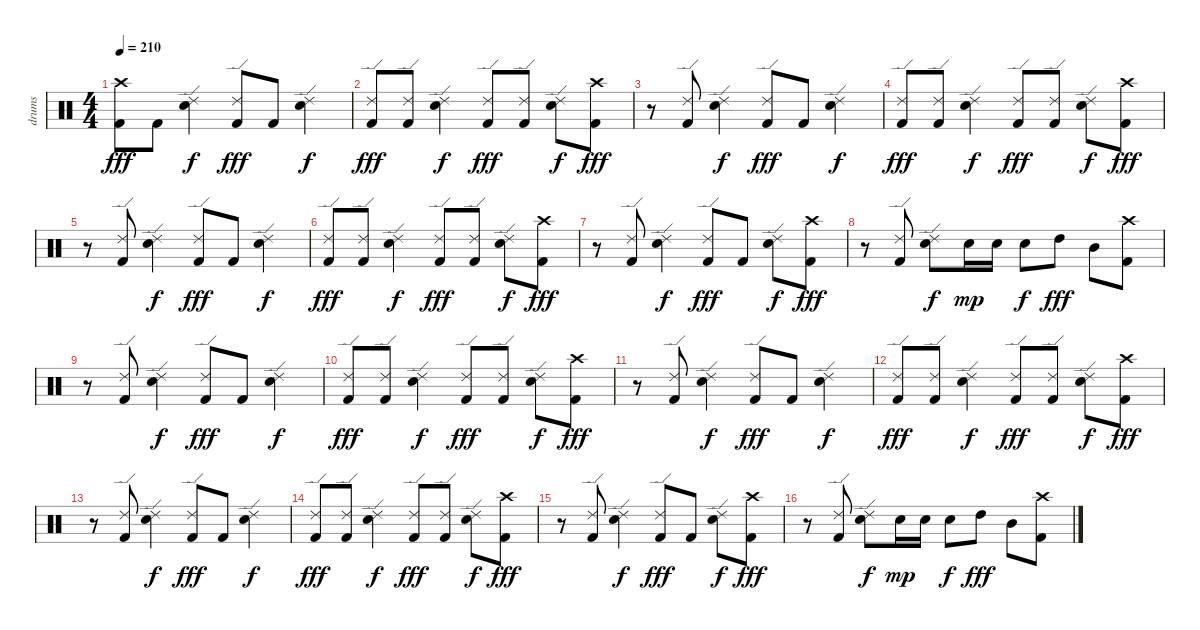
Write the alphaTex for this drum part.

\track ("drums" "drums") {instrument percussion}
\staff {score}
\articulation defaults
\ts (4 4)
\tempo 210
\clef neutral
\ks c
("Crash high (hit)" "Kick (hit) 2").8{dy fff} "Kick (hit) 2".8 ("Ride (edge) 2" "Snare (hit) 2").4{dy f} ("Ride (edge) 2" "Kick (hit) 2").8{dy fff} "Kick (hit) 2".8 ("Ride (edge) 2" "Snare (hit) 2").4{dy f} |
("Ride (edge) 2" "Kick (hit) 2").8{dy fff} ("Ride (edge) 2" "Kick (hit) 2").8 ("Ride (edge) 2" "Snare (hit) 2").4{dy f} ("Ride (edge) 2" "Kick (hit) 2").8{dy fff} ("Ride (edge) 2" "Kick (hit) 2").8 ("Ride (edge) 2" "Snare (hit) 2").8{dy f} ("Crash high (hit)" "Kick (hit) 2").8{dy fff} |
r.8 ("Ride (edge) 2" "Kick (hit) 2").8 ("Ride (edge) 2" "Snare (hit) 2").4{dy f} ("Ride (edge) 2" "Kick (hit) 2").8{dy fff} "Kick (hit) 2".8 ("Ride (edge) 2" "Snare (hit) 2").4{dy f} |
("Ride (edge) 2" "Kick (hit) 2").8{dy fff} ("Ride (edge) 2" "Kick (hit) 2").8 ("Ride (edge) 2" "Snare (hit) 2").4{dy f} ("Ride (edge) 2" "Kick (hit) 2").8{dy fff} ("Ride (edge) 2" "Kick (hit) 2").8 ("Ride (edge) 2" "Snare (hit) 2").8{dy f} ("Crash high (hit)" "Kick (hit) 2").8{dy fff} |
r.8 ("Ride (edge) 2" "Kick (hit) 2").8 ("Ride (edge) 2" "Snare (hit) 2").4{dy f} ("Ride (edge) 2" "Kick (hit) 2").8{dy fff} "Kick (hit) 2".8 ("Ride (edge) 2" "Snare (hit) 2").4{dy f} |
("Ride (edge) 2" "Kick (hit) 2").8{dy fff} ("Ride (edge) 2" "Kick (hit) 2").8 ("Ride (edge) 2" "Snare (hit) 2").4{dy f} ("Ride (edge) 2" "Kick (hit) 2").8{dy fff} ("Ride (edge) 2" "Kick (hit) 2").8 ("Ride (edge) 2" "Snare (hit) 2").8{dy f} ("Crash high (hit)" "Kick (hit) 2").8{dy fff} |
r.8 ("Ride (edge) 2" "Kick (hit) 2").8 ("Ride (edge) 2" "Snare (hit) 2").4{dy f} ("Ride (edge) 2" "Kick (hit) 2").8{dy fff} "Kick (hit) 2".8 ("Ride (edge) 2" "Snare (hit) 2").8{dy f} ("Crash high (hit)" "Kick (hit) 2").8{dy fff} |
r.8 ("Ride (edge) 2" "Kick (hit) 2").8 ("Ride (edge) 2" "Snare (hit) 2").8{dy f} "Snare (hit) 2".16{dy mp} "Snare (hit) 2".16 "Snare (hit) 2".8{dy f} "High Tom (hit)".8{dy fff} "Mid Tom (hit)".8 ("Crash high (hit)" "Kick (hit) 2").8 |
r.8 ("Ride (edge) 2" "Kick (hit) 2").8 ("Ride (edge) 2" "Snare (hit) 2").4{dy f} ("Ride (edge) 2" "Kick (hit) 2").8{dy fff} "Kick (hit) 2".8 ("Ride (edge) 2" "Snare (hit) 2").4{dy f} |
("Ride (edge) 2" "Kick (hit) 2").8{dy fff} ("Ride (edge) 2" "Kick (hit) 2").8 ("Ride (edge) 2" "Snare (hit) 2").4{dy f} ("Ride (edge) 2" "Kick (hit) 2").8{dy fff} ("Ride (edge) 2" "Kick (hit) 2").8 ("Ride (edge) 2" "Snare (hit) 2").8{dy f} ("Crash high (hit)" "Kick (hit) 2").8{dy fff} |
r.8 ("Ride (edge) 2" "Kick (hit) 2").8 ("Ride (edge) 2" "Snare (hit) 2").4{dy f} ("Ride (edge) 2" "Kick (hit) 2").8{dy fff} "Kick (hit) 2".8 ("Ride (edge) 2" "Snare (hit) 2").4{dy f} |
("Ride (edge) 2" "Kick (hit) 2").8{dy fff} ("Ride (edge) 2" "Kick (hit) 2").8 ("Ride (edge) 2" "Snare (hit) 2").4{dy f} ("Ride (edge) 2" "Kick (hit) 2").8{dy fff} ("Ride (edge) 2" "Kick (hit) 2").8 ("Ride (edge) 2" "Snare (hit) 2").8{dy f} ("Crash high (hit)" "Kick (hit) 2").8{dy fff} |
r.8 ("Ride (edge) 2" "Kick (hit) 2").8 ("Ride (edge) 2" "Snare (hit) 2").4{dy f} ("Ride (edge) 2" "Kick (hit) 2").8{dy fff} "Kick (hit) 2".8 ("Ride (edge) 2" "Snare (hit) 2").4{dy f} |
("Ride (edge) 2" "Kick (hit) 2").8{dy fff} ("Ride (edge) 2" "Kick (hit) 2").8 ("Ride (edge) 2" "Snare (hit) 2").4{dy f} ("Ride (edge) 2" "Kick (hit) 2").8{dy fff} ("Ride (edge) 2" "Kick (hit) 2").8 ("Ride (edge) 2" "Snare (hit) 2").8{dy f} ("Crash high (hit)" "Kick (hit) 2").8{dy fff} |
r.8 ("Ride (edge) 2" "Kick (hit) 2").8 ("Ride (edge) 2" "Snare (hit) 2").4{dy f} ("Ride (edge) 2" "Kick (hit) 2").8{dy fff} "Kick (hit) 2".8 ("Ride (edge) 2" "Snare (hit) 2").8{dy f} ("Crash high (hit)" "Kick (hit) 2").8{dy fff} |
r.8 ("Ride (edge) 2" "Kick (hit) 2").8 ("Ride (edge) 2" "Snare (hit) 2").8{dy f} "Snare (hit) 2".16{dy mp} "Snare (hit) 2".16 "Snare (hit) 2".8{dy f} "High Tom (hit)".8{dy fff} "Mid Tom (hit)".8 ("Crash high (hit)" "Kick (hit) 2").8
